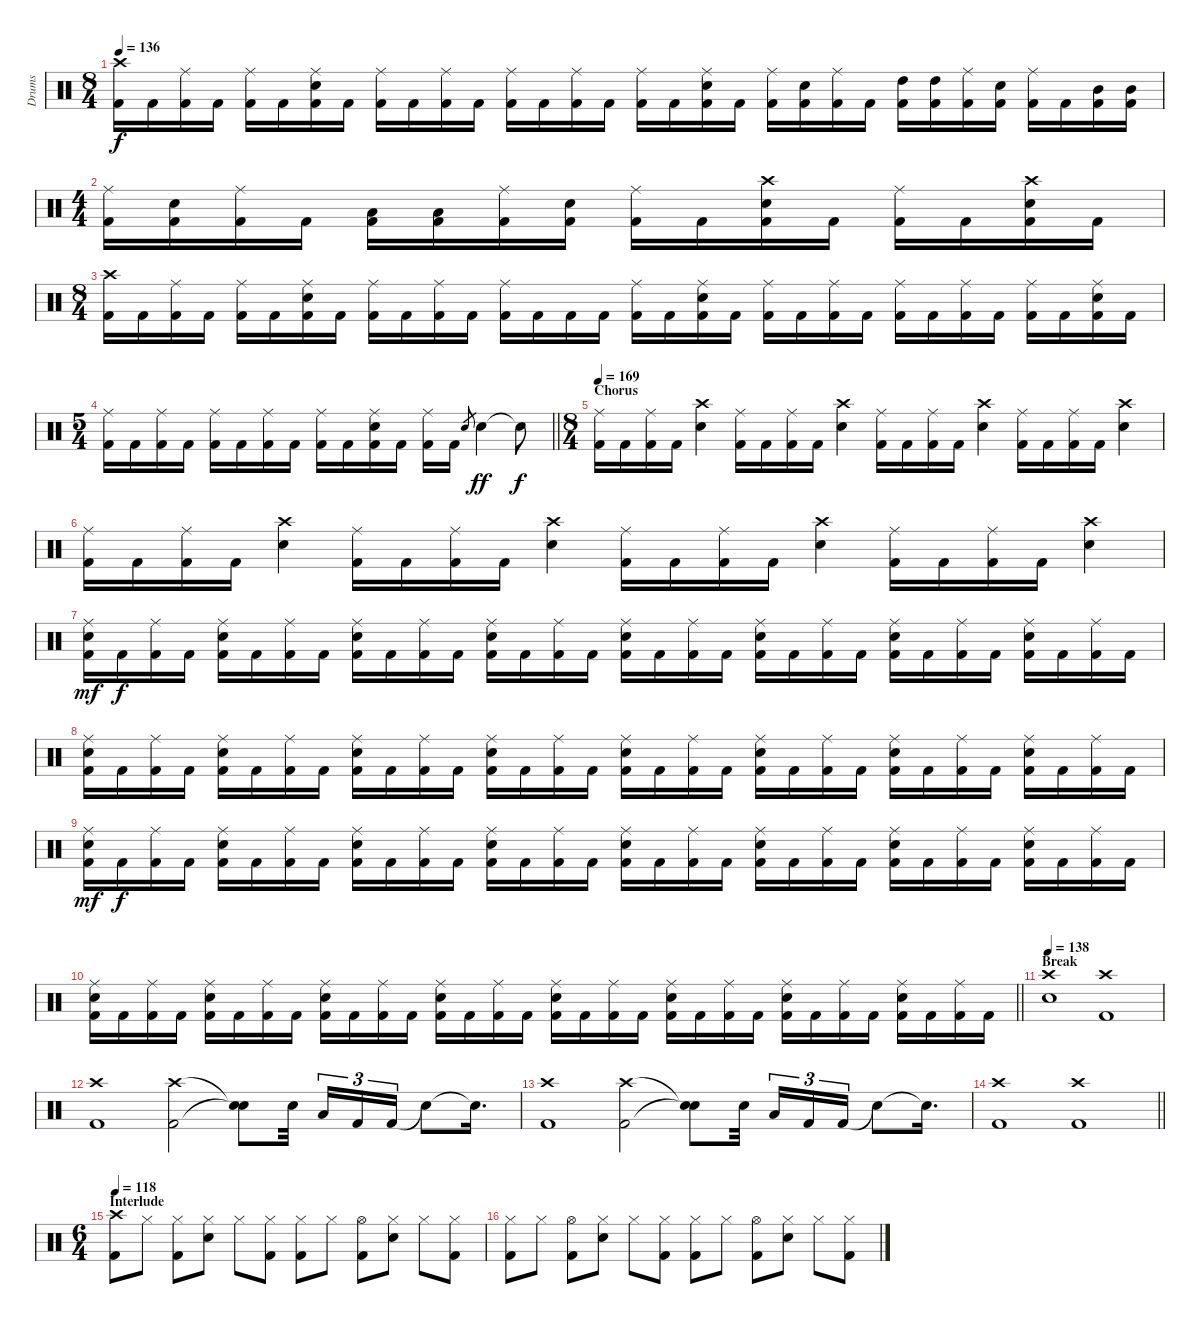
\track ("Drums" "Drums") {instrument percussion}
\staff {score}
\articulation defaults
\ts (8 4)
\tempo 136
\clef neutral
\ks c
("Crash high (hit)" "Kick (hit) 2").16{dy f} "Kick (hit) 2".16 ("Ride (middle)" "Kick (hit) 2").16 "Kick (hit) 2".16 ("Ride (middle)" "Kick (hit) 2").16 "Kick (hit) 2".16 ("Ride (middle)" "Snare (hit) 2" "Kick (hit) 2").16 "Kick (hit) 2".16 ("Ride (middle)" "Kick (hit) 2").16 "Kick (hit) 2".16 ("Ride (middle)" "Kick (hit) 2").16 "Kick (hit) 2".16 ("Ride (middle)" "Kick (hit) 2").16 "Kick (hit) 2".16 ("Ride (middle)" "Kick (hit) 2").16 "Kick (hit) 2".16 ("Ride (middle)" "Kick (hit) 2").16 "Kick (hit) 2".16 ("Ride (middle)" "Snare (hit) 2" "Kick (hit) 2").16 "Kick (hit) 2".16 ("Ride (middle)" "Kick (hit) 2").16 ("Snare (hit) 2" "Kick (hit) 2").16 ("Ride (middle)" "Kick (hit) 2").16 "Kick (hit) 2".16 ("High Tom (hit)" "Kick (hit) 2").16 ("High Tom (hit)" "Kick (hit) 2").16 ("Ride (middle)" "Kick (hit) 2").16 ("Snare (hit) 2" "Kick (hit) 2").16 ("Ride (middle)" "Kick (hit) 2").16 "Kick (hit) 2".16 ("Mid Tom (hit)" "Kick (hit) 2").16 ("Mid Tom (hit)" "Kick (hit) 2").16 |
\ts (4 4)
("Ride (middle)" "Kick (hit) 2").16 ("Snare (hit) 2" "Kick (hit) 2").16 ("Ride (middle)" "Kick (hit) 2").16 "Kick (hit) 2".16 ("Low Tom (hit)" "Kick (hit) 2").16 ("Low Tom (hit)" "Kick (hit) 2").16 ("Ride (middle)" "Kick (hit) 2").16 ("Snare (hit) 2" "Kick (hit) 2").16 ("Ride (middle)" "Kick (hit) 2").16 "Kick (hit) 2".16 ("Crash high (hit)" "Snare (hit) 2" "Kick (hit) 2").16 "Kick (hit) 2".16 ("Ride (middle)" "Kick (hit) 2").16 "Kick (hit) 2".16 ("Crash high (hit)" "Snare (hit) 2" "Kick (hit) 2").16 "Kick (hit) 2".16 |
\ts (8 4)
("Crash high (hit)" "Kick (hit) 2").16 "Kick (hit) 2".16 ("Ride (middle)" "Kick (hit) 2").16 "Kick (hit) 2".16 ("Ride (middle)" "Kick (hit) 2").16 "Kick (hit) 2".16 ("Ride (middle)" "Snare (hit) 2" "Kick (hit) 2").16 "Kick (hit) 2".16 ("Ride (middle)" "Kick (hit) 2").16 "Kick (hit) 2".16 ("Ride (middle)" "Kick (hit) 2").16 "Kick (hit) 2".16 ("Ride (middle)" "Kick (hit) 2").16 "Kick (hit) 2".16 "Kick (hit) 2".16 "Kick (hit) 2".16 ("Ride (middle)" "Kick (hit) 2").16 "Kick (hit) 2".16 ("Ride (middle)" "Snare (hit) 2" "Kick (hit) 2").16 "Kick (hit) 2".16 ("Ride (middle)" "Kick (hit) 2").16 "Kick (hit) 2".16 ("Ride (middle)" "Kick (hit) 2").16 "Kick (hit) 2".16 ("Ride (middle)" "Kick (hit) 2").16 "Kick (hit) 2".16 ("Ride (middle)" "Kick (hit) 2").16 "Kick (hit) 2".16 ("Ride (middle)" "Kick (hit) 2").16 "Kick (hit) 2".16 ("Ride (middle)" "Snare (hit) 2" "Kick (hit) 2").16 "Kick (hit) 2".16 |
\ts (5 4)
\barLineRight lightlight
("Ride (middle)" "Kick (hit) 2").16 "Kick (hit) 2".16 ("Ride (middle)" "Kick (hit) 2").16 "Kick (hit) 2".16 ("Ride (middle)" "Kick (hit) 2").16 "Kick (hit) 2".16 ("Ride (middle)" "Kick (hit) 2").16 "Kick (hit) 2".16 ("Ride (middle)" "Kick (hit) 2").16 "Kick (hit) 2".16 ("Ride (middle)" "Snare (hit) 2" "Kick (hit) 2").16 "Kick (hit) 2".16 ("Ride (middle)" "Kick (hit) 2").16 "Kick (hit) 2".16 "Snare (hit) 2".8{gr} "Snare (hit) 2".4{dy ff} "Snare (hit)"{t}.8{dy f} |
\ts (8 4)
\section ("" "Chorus")
\tempo 169
("Ride (middle)" "Kick (hit) 2").16 "Kick (hit) 2".16 ("Ride (middle)" "Kick (hit) 2").16 "Kick (hit) 2".16 ("Crash high (hit)" "Snare (hit) 2").4 ("Ride (middle)" "Kick (hit) 2").16 "Kick (hit) 2".16 ("Ride (middle)" "Kick (hit) 2").16 "Kick (hit) 2".16 ("Crash high (hit)" "Snare (hit) 2").4 ("Ride (middle)" "Kick (hit) 2").16 "Kick (hit) 2".16 ("Ride (middle)" "Kick (hit) 2").16 "Kick (hit) 2".16 ("Crash high (hit)" "Snare (hit) 2").4 ("Ride (middle)" "Kick (hit) 2").16 "Kick (hit) 2".16 ("Ride (middle)" "Kick (hit) 2").16 "Kick (hit) 2".16 ("Crash high (hit)" "Snare (hit) 2").4 |
("Ride (middle)" "Kick (hit) 2").16 "Kick (hit) 2".16 ("Ride (middle)" "Kick (hit) 2").16 "Kick (hit) 2".16 ("Crash high (hit)" "Snare (hit) 2").4 ("Ride (middle)" "Kick (hit) 2").16 "Kick (hit) 2".16 ("Ride (middle)" "Kick (hit) 2").16 "Kick (hit) 2".16 ("Crash high (hit)" "Snare (hit) 2").4 ("Ride (middle)" "Kick (hit) 2").16 "Kick (hit) 2".16 ("Ride (middle)" "Kick (hit) 2").16 "Kick (hit) 2".16 ("Crash high (hit)" "Snare (hit) 2").4 ("Ride (middle)" "Kick (hit) 2").16 "Kick (hit) 2".16 ("Ride (middle)" "Kick (hit) 2").16 "Kick (hit) 2".16 ("Crash high (hit)" "Snare (hit) 2").4 |
("Ride (middle)" "Snare (hit) 2" "Kick (hit) 2").16{dy mf} "Kick (hit) 2".16{dy f} ("Ride (middle)" "Kick (hit) 2").16 "Kick (hit) 2".16 ("Ride (middle)" "Snare (hit) 2" "Kick (hit) 2").16 "Kick (hit) 2".16 ("Ride (middle)" "Kick (hit) 2").16 "Kick (hit) 2".16 ("Ride (middle)" "Snare (hit) 2" "Kick (hit) 2").16 "Kick (hit) 2".16 ("Ride (middle)" "Kick (hit) 2").16 "Kick (hit) 2".16 ("Ride (middle)" "Snare (hit) 2" "Kick (hit) 2").16 "Kick (hit) 2".16 ("Ride (middle)" "Kick (hit) 2").16 "Kick (hit) 2".16 ("Ride (middle)" "Snare (hit) 2" "Kick (hit) 2").16 "Kick (hit) 2".16 ("Ride (middle)" "Kick (hit) 2").16 "Kick (hit) 2".16 ("Ride (middle)" "Snare (hit) 2" "Kick (hit) 2").16 "Kick (hit) 2".16 ("Ride (middle)" "Kick (hit) 2").16 "Kick (hit) 2".16 ("Ride (middle)" "Snare (hit) 2" "Kick (hit) 2").16 "Kick (hit) 2".16 ("Ride (middle)" "Kick (hit) 2").16 "Kick (hit) 2".16 ("Ride (middle)" "Snare (hit) 2" "Kick (hit) 2").16 "Kick (hit) 2".16 ("Ride (middle)" "Kick (hit) 2").16 "Kick (hit) 2".16 |
("Ride (middle)" "Snare (hit) 2" "Kick (hit) 2").16 "Kick (hit) 2".16 ("Ride (middle)" "Kick (hit) 2").16 "Kick (hit) 2".16 ("Ride (middle)" "Snare (hit) 2" "Kick (hit) 2").16 "Kick (hit) 2".16 ("Ride (middle)" "Kick (hit) 2").16 "Kick (hit) 2".16 ("Ride (middle)" "Snare (hit) 2" "Kick (hit) 2").16 "Kick (hit) 2".16 ("Ride (middle)" "Kick (hit) 2").16 "Kick (hit) 2".16 ("Ride (middle)" "Snare (hit) 2" "Kick (hit) 2").16 "Kick (hit) 2".16 ("Ride (middle)" "Kick (hit) 2").16 "Kick (hit) 2".16 ("Ride (middle)" "Snare (hit) 2" "Kick (hit) 2").16 "Kick (hit) 2".16 ("Ride (middle)" "Kick (hit) 2").16 "Kick (hit) 2".16 ("Ride (middle)" "Snare (hit) 2" "Kick (hit) 2").16 "Kick (hit) 2".16 ("Ride (middle)" "Kick (hit) 2").16 "Kick (hit) 2".16 ("Ride (middle)" "Snare (hit) 2" "Kick (hit) 2").16 "Kick (hit) 2".16 ("Ride (middle)" "Kick (hit) 2").16 "Kick (hit) 2".16 ("Ride (middle)" "Snare (hit) 2" "Kick (hit) 2").16 "Kick (hit) 2".16 ("Ride (middle)" "Kick (hit) 2").16 "Kick (hit) 2".16 |
("Ride (middle)" "Snare (hit) 2" "Kick (hit) 2").16{dy mf} "Kick (hit) 2".16{dy f} ("Ride (middle)" "Kick (hit) 2").16 "Kick (hit) 2".16 ("Ride (middle)" "Snare (hit) 2" "Kick (hit) 2").16 "Kick (hit) 2".16 ("Ride (middle)" "Kick (hit) 2").16 "Kick (hit) 2".16 ("Ride (middle)" "Snare (hit) 2" "Kick (hit) 2").16 "Kick (hit) 2".16 ("Ride (middle)" "Kick (hit) 2").16 "Kick (hit) 2".16 ("Ride (middle)" "Snare (hit) 2" "Kick (hit) 2").16 "Kick (hit) 2".16 ("Ride (middle)" "Kick (hit) 2").16 "Kick (hit) 2".16 ("Ride (middle)" "Snare (hit) 2" "Kick (hit) 2").16 "Kick (hit) 2".16 ("Ride (middle)" "Kick (hit) 2").16 "Kick (hit) 2".16 ("Ride (middle)" "Snare (hit) 2" "Kick (hit) 2").16 "Kick (hit) 2".16 ("Ride (middle)" "Kick (hit) 2").16 "Kick (hit) 2".16 ("Ride (middle)" "Snare (hit) 2" "Kick (hit) 2").16 "Kick (hit) 2".16 ("Ride (middle)" "Kick (hit) 2").16 "Kick (hit) 2".16 ("Ride (middle)" "Snare (hit) 2" "Kick (hit) 2").16 "Kick (hit) 2".16 ("Ride (middle)" "Kick (hit) 2").16 "Kick (hit) 2".16 |
\barLineRight lightlight
("Ride (middle)" "Snare (hit) 2" "Kick (hit) 2").16 "Kick (hit) 2".16 ("Ride (middle)" "Kick (hit) 2").16 "Kick (hit) 2".16 ("Ride (middle)" "Snare (hit) 2" "Kick (hit) 2").16 "Kick (hit) 2".16 ("Ride (middle)" "Kick (hit) 2").16 "Kick (hit) 2".16 ("Ride (middle)" "Snare (hit) 2" "Kick (hit) 2").16 "Kick (hit) 2".16 ("Ride (middle)" "Kick (hit) 2").16 "Kick (hit) 2".16 ("Ride (middle)" "Snare (hit) 2" "Kick (hit) 2").16 "Kick (hit) 2".16 ("Ride (middle)" "Kick (hit) 2").16 "Kick (hit) 2".16 ("Ride (middle)" "Snare (hit) 2" "Kick (hit) 2").16 "Kick (hit) 2".16 ("Ride (middle)" "Kick (hit) 2").16 "Kick (hit) 2".16 ("Ride (middle)" "Snare (hit) 2" "Kick (hit) 2").16 "Kick (hit) 2".16 ("Ride (middle)" "Kick (hit) 2").16 "Kick (hit) 2".16 ("Ride (middle)" "Snare (hit) 2" "Kick (hit) 2").16 "Kick (hit) 2".16 ("Ride (middle)" "Kick (hit) 2").16 "Kick (hit) 2".16 ("Ride (middle)" "Snare (hit) 2" "Kick (hit) 2").16 "Kick (hit) 2".16 ("Ride (middle)" "Kick (hit) 2").16 "Kick (hit) 2".16 |
\section ("" "Break")
\tempo 138
("Crash high (hit)" "Snare (hit) 2").1 ("Crash high (hit)" "Kick (hit) 2").1 |
("Crash high (hit)" "Kick (hit) 2").1 ("Crash high (hit)" "Kick (hit) 2").2 ("Snare (hit)"{t} "Snare (hit)"{t}).8 "Snare (hit) 2".32{beam splitsecondary} "Low Tom (hit)".16{tu (3 2)} "Kick (hit) 2".16{tu (3 2)} "Kick (hit) 2".16{tu (3 2)} "Snare (hit)"{t}.8 "Snare (hit)"{t}.16{d} |
("Crash high (hit)" "Kick (hit) 2").1 ("Crash high (hit)" "Kick (hit) 2").2 ("Snare (hit)"{t} "Snare (hit)"{t}).8 "Snare (hit) 2".32{beam splitsecondary} "Low Tom (hit)".16{tu (3 2)} "Kick (hit) 2".16{tu (3 2)} "Kick (hit) 2".16{tu (3 2)} "Snare (hit)"{t}.8 "Snare (hit)"{t}.16{d} |
\barLineRight lightlight
("Crash high (hit)" "Kick (hit) 2").1 ("Crash high (hit)" "Kick (hit) 2").1 |
\ts (6 4)
\section ("" "Interlude")
\tempo 118
("Crash high (hit)" "Kick (hit) 2").8 "Hi-Hat (closed)".8 ("Hi-Hat (closed)" "Kick (hit) 2").8 ("Hi-Hat (closed)" "Snare (hit) 2").8 "Hi-Hat (closed)".8 ("Hi-Hat (closed)" "Kick (hit) 2").8 ("Hi-Hat (closed)" "Kick (hit) 2").8 "Hi-Hat (closed)".8 ("Hi-Hat (open)" "Kick (hit) 2").8 ("Hi-Hat (closed)" "Snare (hit) 2").8 "Hi-Hat (closed)".8 ("Hi-Hat (closed)" "Kick (hit) 2").8 |
("Hi-Hat (closed)" "Kick (hit) 2").8 "Hi-Hat (closed)".8 ("Hi-Hat (open)" "Kick (hit) 2").8 ("Hi-Hat (closed)" "Snare (hit) 2").8 "Hi-Hat (closed)".8 ("Hi-Hat (closed)" "Kick (hit) 2").8 ("Hi-Hat (closed)" "Kick (hit) 2").8 "Hi-Hat (closed)".8 ("Hi-Hat (open)" "Kick (hit) 2").8 ("Hi-Hat (closed)" "Snare (hit) 2").8 "Hi-Hat (closed)".8 ("Hi-Hat (closed)" "Kick (hit) 2").8
